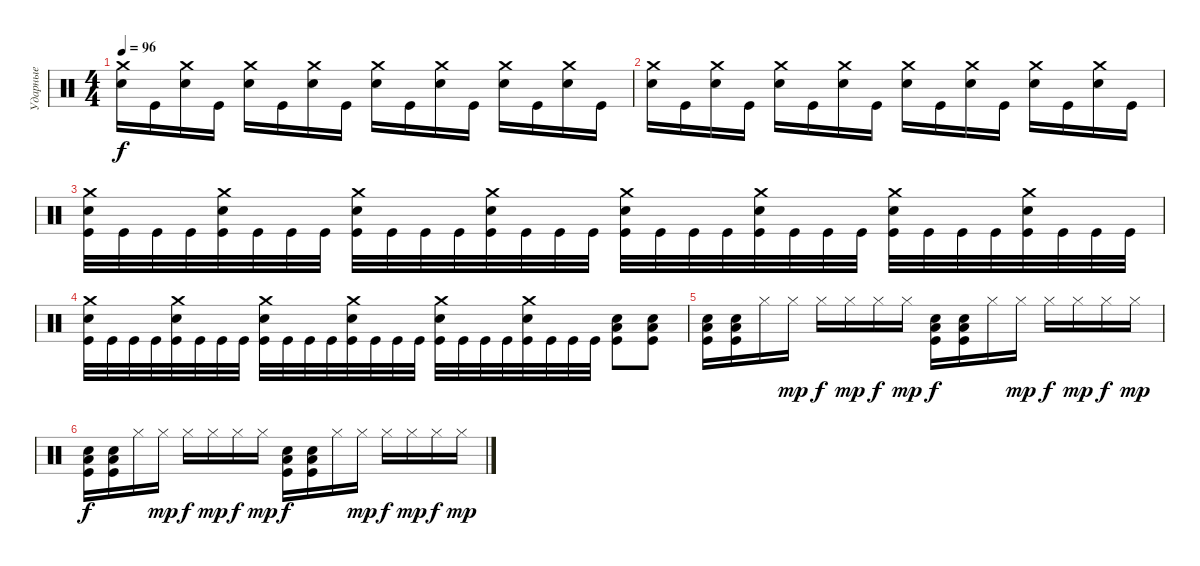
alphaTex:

\track ("Ударные" "Ударные") {instrument percussion}
\staff {score}
\articulation defaults
\ts (4 4)
\tempo 96
\clef neutral
\ks c
("Crash medium (hit)" "Snare (hit) 2").16{dy f} "Kick (hit)".16 ("Crash medium (hit)" "Snare (hit) 2").16 "Kick (hit)".16 ("Crash medium (hit)" "Snare (hit) 2").16 "Kick (hit)".16 ("Crash medium (hit)" "Snare (hit) 2").16 "Kick (hit)".16 ("Crash medium (hit)" "Snare (hit) 2").16 "Kick (hit)".16 ("Crash medium (hit)" "Snare (hit) 2").16 "Kick (hit)".16 ("Crash medium (hit)" "Snare (hit) 2").16 "Kick (hit)".16 ("Crash medium (hit)" "Snare (hit) 2").16 "Kick (hit)".16 |
("Crash medium (hit)" "Snare (hit) 2").16 "Kick (hit)".16 ("Crash medium (hit)" "Snare (hit) 2").16 "Kick (hit)".16 ("Crash medium (hit)" "Snare (hit) 2").16 "Kick (hit)".16 ("Crash medium (hit)" "Snare (hit) 2").16 "Kick (hit)".16 ("Crash medium (hit)" "Snare (hit) 2").16 "Kick (hit)".16 ("Crash medium (hit)" "Snare (hit) 2").16 "Kick (hit)".16 ("Crash medium (hit)" "Snare (hit) 2").16 "Kick (hit)".16 ("Crash medium (hit)" "Snare (hit) 2").16 "Kick (hit)".16 |
("Crash medium (hit)" "Snare (hit) 2" "Kick (hit)").32 "Kick (hit)".32 "Kick (hit)".32 "Kick (hit)".32 ("Crash medium (hit)" "Snare (hit) 2" "Kick (hit)").32 "Kick (hit)".32 "Kick (hit)".32 "Kick (hit)".32 ("Crash medium (hit)" "Snare (hit) 2" "Kick (hit)").32 "Kick (hit)".32 "Kick (hit)".32 "Kick (hit)".32 ("Crash medium (hit)" "Snare (hit) 2" "Kick (hit)").32 "Kick (hit)".32 "Kick (hit)".32 "Kick (hit)".32 ("Crash medium (hit)" "Snare (hit) 2" "Kick (hit)").32 "Kick (hit)".32 "Kick (hit)".32 "Kick (hit)".32 ("Crash medium (hit)" "Snare (hit) 2" "Kick (hit)").32 "Kick (hit)".32 "Kick (hit)".32 "Kick (hit)".32 ("Crash medium (hit)" "Snare (hit) 2" "Kick (hit)").32 "Kick (hit)".32 "Kick (hit)".32 "Kick (hit)".32 ("Crash medium (hit)" "Snare (hit) 2" "Kick (hit)").32 "Kick (hit)".32 "Kick (hit)".32 "Kick (hit)".32 |
("Crash medium (hit)" "Snare (hit) 2" "Kick (hit)").32 "Kick (hit)".32 "Kick (hit)".32 "Kick (hit)".32 ("Crash medium (hit)" "Snare (hit) 2" "Kick (hit)").32 "Kick (hit)".32 "Kick (hit)".32 "Kick (hit)".32 ("Crash medium (hit)" "Snare (hit) 2" "Kick (hit)").32 "Kick (hit)".32 "Kick (hit)".32 "Kick (hit)".32 ("Crash medium (hit)" "Snare (hit) 2" "Kick (hit)").32 "Kick (hit)".32 "Kick (hit)".32 "Kick (hit)".32 ("Crash medium (hit)" "Snare (hit) 2" "Kick (hit)").32 "Kick (hit)".32 "Kick (hit)".32 "Kick (hit)".32 ("Crash medium (hit)" "Snare (hit) 2" "Kick (hit)").32 "Kick (hit)".32 "Kick (hit)".32 "Kick (hit)".32 ("Low Floor Tom (hit)" "Snare (hit) 2" "Kick (hit)").8 ("Low Floor Tom (hit)" "Snare (hit) 2" "Kick (hit)").8 |
("Snare (hit) 2" "Low Floor Tom (hit)" "Kick (hit)").16 ("Snare (hit) 2" "Low Floor Tom (hit)" "Kick (hit)").16 "Hi-Hat (closed)".16 "Hi-Hat (closed)".16{dy mp} "Hi-Hat (closed)".16{dy f} "Hi-Hat (closed)".16{dy mp} "Hi-Hat (closed)".16{dy f} "Hi-Hat (closed)".16{dy mp} ("Snare (hit) 2" "Low Floor Tom (hit)" "Kick (hit)").16{dy f} ("Snare (hit) 2" "Low Floor Tom (hit)" "Kick (hit)").16 "Hi-Hat (closed)".16 "Hi-Hat (closed)".16{dy mp} "Hi-Hat (closed)".16{dy f} "Hi-Hat (closed)".16{dy mp} "Hi-Hat (closed)".16{dy f} "Hi-Hat (closed)".16{dy mp} |
("Snare (hit) 2" "Low Floor Tom (hit)" "Kick (hit)").16{dy f} ("Snare (hit) 2" "Low Floor Tom (hit)" "Kick (hit)").16 "Hi-Hat (closed)".16 "Hi-Hat (closed)".16{dy mp} "Hi-Hat (closed)".16{dy f} "Hi-Hat (closed)".16{dy mp} "Hi-Hat (closed)".16{dy f} "Hi-Hat (closed)".16{dy mp} ("Snare (hit) 2" "Low Floor Tom (hit)" "Kick (hit)").16{dy f} ("Snare (hit) 2" "Low Floor Tom (hit)" "Kick (hit)").16 "Hi-Hat (closed)".16 "Hi-Hat (closed)".16{dy mp} "Hi-Hat (closed)".16{dy f} "Hi-Hat (closed)".16{dy mp} "Hi-Hat (closed)".16{dy f} "Hi-Hat (closed)".16{dy mp}
